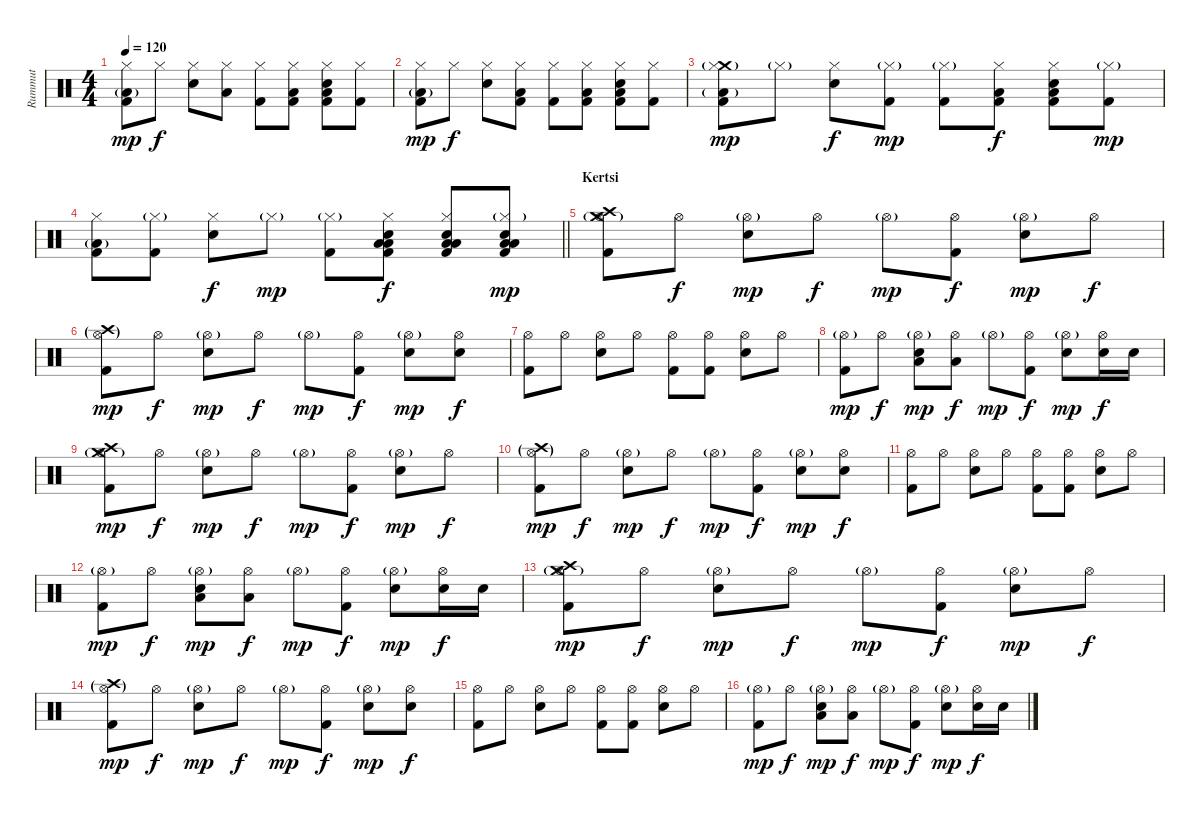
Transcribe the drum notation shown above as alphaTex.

\track ("Rummut" "Rummut") {instrument percussion}
\staff {score}
\articulation defaults
\ts (4 4)
\tempo 120
\clef neutral
\ks c
("Low Floor Tom (hit)"{g} "Kick (hit) 2" "Hi-Hat (closed)").8{dy mp} "Hi-Hat (closed)".8{dy f} ("Snare (hit) 2" "Hi-Hat (closed)").8 ("Low Floor Tom (hit)" "Hi-Hat (closed)").8 ("Kick (hit) 2" "Hi-Hat (closed)").8 ("Kick (hit) 2" "Low Floor Tom (hit)" "Hi-Hat (closed)").8 ("Kick (hit) 2" "Snare (hit) 2" "Low Tom (hit)" "Hi-Hat (closed)").8 ("Kick (hit) 2" "Hi-Hat (closed)").8 |
("Low Floor Tom (hit)"{g} "Kick (hit) 2" "Hi-Hat (closed)").8{dy mp} "Hi-Hat (closed)".8{dy f} ("Snare (hit) 2" "Hi-Hat (closed)").8 ("Kick (hit) 2" "Low Floor Tom (hit)" "Hi-Hat (closed)").8 ("Kick (hit) 2" "Hi-Hat (closed)").8 ("Kick (hit) 2" "Low Floor Tom (hit)" "Hi-Hat (closed)").8 ("Kick (hit) 2" "Snare (hit) 2" "Low Tom (hit)" "Hi-Hat (closed)").8 ("Kick (hit) 2" "Hi-Hat (closed)").8 |
("Crash medium (hit)"{g} "Low Floor Tom (hit)"{g} "Kick (hit) 2" "Hi-Hat (closed)").8{dy mp} "Hi-Hat (closed)"{g}.8 ("Snare (hit) 2" "Hi-Hat (closed)").8{dy f} ("Kick (hit) 2" "Hi-Hat (closed)"{g}).8{dy mp} ("Kick (hit) 2" "Hi-Hat (closed)"{g}).8 ("Kick (hit) 2" "Low Floor Tom (hit)" "Hi-Hat (closed)").8{dy f} ("Kick (hit) 2" "Snare (hit) 2" "Low Tom (hit)" "Hi-Hat (closed)").8 ("Kick (hit) 2" "Hi-Hat (closed)"{g}).8{dy mp} |
\barLineRight lightlight
("Low Floor Tom (hit)"{g} "Kick (hit) 2" "Hi-Hat (closed)").8 ("Kick (hit) 2" "Hi-Hat (closed)"{g}).8 ("Snare (hit) 2" "Hi-Hat (closed)").8{dy f} "Hi-Hat (closed)"{g}.8{dy mp} ("Kick (hit) 2" "Hi-Hat (closed)"{g}).8 ("Kick (hit) 2" "Low Floor Tom (hit)" "Hi-Hat (closed)" "Low Tom (hit)" "Snare (hit) 2").8{dy f} ("Kick (hit) 2" "Low Floor Tom (hit)" "Hi-Hat (closed)" "Low Tom (hit)" "Snare (hit) 2").8 ("Kick (hit) 2" "Low Floor Tom (hit)" "Hi-Hat (closed)"{g} "Low Tom (hit)" "Snare (hit) 2").8{dy mp} |
\section ("" "Kertsi")
("Hi-Hat (open)"{g} "Kick (hit) 2" "Crash medium (hit)" "Crash high (hit)").8 "Hi-Hat (open)".8{dy f} ("Hi-Hat (open)"{g} "Snare (hit) 2").8{dy mp} "Hi-Hat (open)".8{dy f} "Hi-Hat (open)"{g}.8{dy mp} ("Hi-Hat (open)" "Kick (hit) 2").8{dy f} ("Hi-Hat (open)"{g} "Snare (hit) 2").8{dy mp} "Hi-Hat (open)".8{dy f} |
("Hi-Hat (open)"{g} "Kick (hit) 2" "Crash high (hit)"{g}).8{dy mp} "Hi-Hat (open)".8{dy f} ("Hi-Hat (open)"{g} "Snare (hit) 2").8{dy mp} "Hi-Hat (open)".8{dy f} "Hi-Hat (open)"{g}.8{dy mp} ("Hi-Hat (open)" "Kick (hit) 2").8{dy f} ("Hi-Hat (open)"{g} "Snare (hit) 2").8{dy mp} ("Hi-Hat (open)" "Snare (hit) 2").8{dy f} |
("Hi-Hat (open)" "Kick (hit) 2").8 "Hi-Hat (open)".8 ("Hi-Hat (open)" "Snare (hit) 2").8 "Hi-Hat (open)".8 ("Hi-Hat (open)" "Kick (hit) 2").8 ("Hi-Hat (open)" "Kick (hit) 2").8 ("Hi-Hat (open)" "Snare (hit) 2").8 "Hi-Hat (open)".8 |
("Hi-Hat (open)"{g} "Kick (hit) 2").8{dy mp} "Hi-Hat (open)".8{dy f} ("Hi-Hat (open)"{g} "Snare (hit) 2" "Low Tom (hit)").8{dy mp} ("Hi-Hat (open)" "Low Tom (hit)").8{dy f} "Hi-Hat (open)"{g}.8{dy mp} ("Hi-Hat (open)" "Kick (hit) 2").8{dy f} ("Hi-Hat (open)"{g} "Snare (hit) 2").8{dy mp} ("Hi-Hat (open)" "Snare (hit) 2").16{dy f} "Snare (hit) 2".16 |
("Hi-Hat (open)"{g} "Kick (hit) 2" "Crash medium (hit)" "Crash high (hit)").8{dy mp} "Hi-Hat (open)".8{dy f} ("Hi-Hat (open)"{g} "Snare (hit) 2").8{dy mp} "Hi-Hat (open)".8{dy f} "Hi-Hat (open)"{g}.8{dy mp} ("Hi-Hat (open)" "Kick (hit) 2").8{dy f} ("Hi-Hat (open)"{g} "Snare (hit) 2").8{dy mp} "Hi-Hat (open)".8{dy f} |
("Hi-Hat (open)"{g} "Kick (hit) 2" "Crash high (hit)"{g}).8{dy mp} "Hi-Hat (open)".8{dy f} ("Hi-Hat (open)"{g} "Snare (hit) 2").8{dy mp} "Hi-Hat (open)".8{dy f} "Hi-Hat (open)"{g}.8{dy mp} ("Hi-Hat (open)" "Kick (hit) 2").8{dy f} ("Hi-Hat (open)"{g} "Snare (hit) 2").8{dy mp} ("Hi-Hat (open)" "Snare (hit) 2").8{dy f} |
("Hi-Hat (open)" "Kick (hit) 2").8 "Hi-Hat (open)".8 ("Hi-Hat (open)" "Snare (hit) 2").8 "Hi-Hat (open)".8 ("Hi-Hat (open)" "Kick (hit) 2").8 ("Hi-Hat (open)" "Kick (hit) 2").8 ("Hi-Hat (open)" "Snare (hit) 2").8 "Hi-Hat (open)".8 |
("Hi-Hat (open)"{g} "Kick (hit) 2").8{dy mp} "Hi-Hat (open)".8{dy f} ("Hi-Hat (open)"{g} "Snare (hit) 2" "Low Tom (hit)").8{dy mp} ("Hi-Hat (open)" "Low Tom (hit)").8{dy f} "Hi-Hat (open)"{g}.8{dy mp} ("Hi-Hat (open)" "Kick (hit) 2").8{dy f} ("Hi-Hat (open)"{g} "Snare (hit) 2").8{dy mp} ("Hi-Hat (open)" "Snare (hit) 2").16{dy f} "Snare (hit) 2".16 |
("Hi-Hat (open)"{g} "Kick (hit) 2" "Crash medium (hit)" "Crash high (hit)").8{dy mp} "Hi-Hat (open)".8{dy f} ("Hi-Hat (open)"{g} "Snare (hit) 2").8{dy mp} "Hi-Hat (open)".8{dy f} "Hi-Hat (open)"{g}.8{dy mp} ("Hi-Hat (open)" "Kick (hit) 2").8{dy f} ("Hi-Hat (open)"{g} "Snare (hit) 2").8{dy mp} "Hi-Hat (open)".8{dy f} |
("Hi-Hat (open)"{g} "Kick (hit) 2" "Crash high (hit)"{g}).8{dy mp} "Hi-Hat (open)".8{dy f} ("Hi-Hat (open)"{g} "Snare (hit) 2").8{dy mp} "Hi-Hat (open)".8{dy f} "Hi-Hat (open)"{g}.8{dy mp} ("Hi-Hat (open)" "Kick (hit) 2").8{dy f} ("Hi-Hat (open)"{g} "Snare (hit) 2").8{dy mp} ("Hi-Hat (open)" "Snare (hit) 2").8{dy f} |
("Hi-Hat (open)" "Kick (hit) 2").8 "Hi-Hat (open)".8 ("Hi-Hat (open)" "Snare (hit) 2").8 "Hi-Hat (open)".8 ("Hi-Hat (open)" "Kick (hit) 2").8 ("Hi-Hat (open)" "Kick (hit) 2").8 ("Hi-Hat (open)" "Snare (hit) 2").8 "Hi-Hat (open)".8 |
("Hi-Hat (open)"{g} "Kick (hit) 2").8{dy mp} "Hi-Hat (open)".8{dy f} ("Hi-Hat (open)"{g} "Snare (hit) 2" "Low Tom (hit)").8{dy mp} ("Hi-Hat (open)" "Low Tom (hit)").8{dy f} "Hi-Hat (open)"{g}.8{dy mp} ("Hi-Hat (open)" "Kick (hit) 2").8{dy f} ("Hi-Hat (open)"{g} "Snare (hit) 2").8{dy mp} ("Hi-Hat (open)" "Snare (hit) 2").16{dy f} "Snare (hit) 2".16
